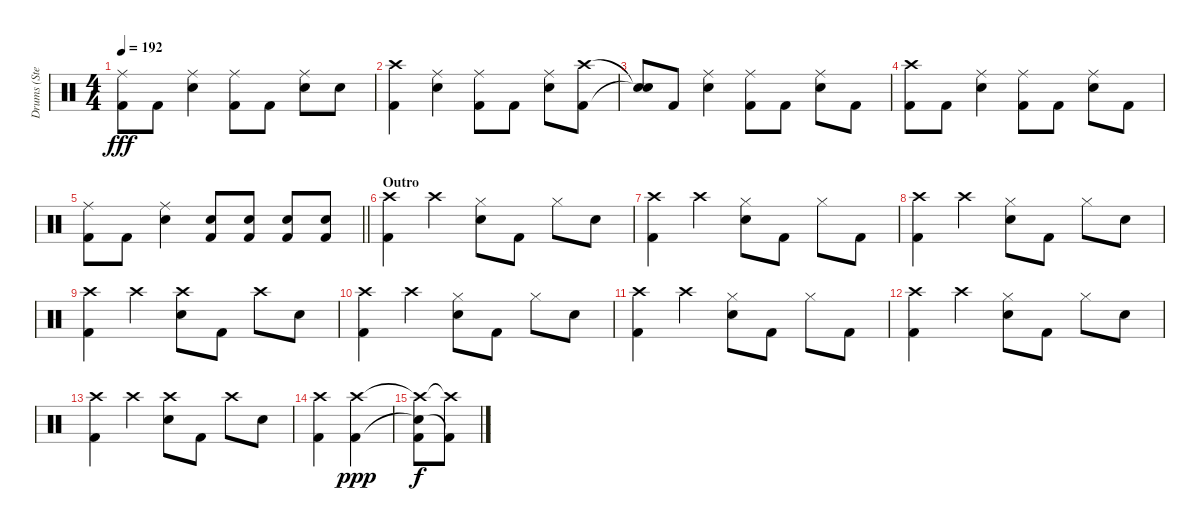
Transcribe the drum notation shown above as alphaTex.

\track ("Drums (Stevo32)" "Drums (Ste") {instrument percussion}
\staff {score}
\articulation defaults
\ts (4 4)
\tempo 192
\clef neutral
\ks c
("Ride (middle)" "Kick (hit) 2").8{dy fff} "Kick (hit) 2".8 ("Ride (middle)" "Electric Snare (hit)").4 ("Ride (middle)" "Kick (hit) 2").8 "Kick (hit) 2".8 ("Ride (middle)" "Electric Snare (hit)").8 "Electric Snare (hit)".8 |
("Crash high (hit)" "Kick (hit) 2").4 ("Ride (middle)" "Electric Snare (hit)").4 ("Ride (middle)" "Kick (hit) 2").8 "Kick (hit) 2".8 ("Ride (middle)" "Electric Snare (hit)").8 ("Crash high (hit)" "Kick (hit) 2").8 |
("Snare (hit)"{t} "Snare (hit)"{t}).8 "Kick (hit) 2".8 ("Ride (middle)" "Electric Snare (hit)").4 ("Ride (middle)" "Kick (hit) 2").8 "Kick (hit) 2".8 ("Ride (middle)" "Electric Snare (hit)").8 "Kick (hit) 2".8 |
("Crash high (hit)" "Kick (hit) 2").8 "Kick (hit) 2".8 ("Ride (middle)" "Electric Snare (hit)").4 ("Ride (middle)" "Kick (hit) 2").8 "Kick (hit) 2".8 ("Ride (middle)" "Electric Snare (hit)").8 "Kick (hit) 2".8 |
\barLineRight lightlight
("Ride (middle)" "Kick (hit) 2").8 "Kick (hit) 2".8 ("Ride (middle)" "Electric Snare (hit)").4 ("Electric Snare (hit)" "Kick (hit) 2").8 ("Electric Snare (hit)" "Kick (hit) 2").8 ("Electric Snare (hit)" "Kick (hit) 2").8 ("Electric Snare (hit)" "Kick (hit) 2").8 |
\section ("" "Outro")
("Crash high (hit)" "Kick (hit) 2").4 "Crash high (hit)".4 ("Hi-Hat (closed)" "Electric Snare (hit)").8 "Kick (hit) 2".8 "Hi-Hat (closed)".8 "Electric Snare (hit)".8 |
("Crash high (hit)" "Kick (hit) 2").4 "Crash high (hit)".4 ("Hi-Hat (closed)" "Electric Snare (hit)").8 "Kick (hit) 2".8 "Hi-Hat (closed)".8 "Kick (hit) 2".8 |
("Crash high (hit)" "Kick (hit) 2").4 "Crash high (hit)".4 ("Hi-Hat (closed)" "Electric Snare (hit)").8 "Kick (hit) 2".8 "Hi-Hat (closed)".8 "Electric Snare (hit)".8 |
("Crash high (hit)" "Kick (hit) 2").4 "Crash high (hit)".4 ("Crash high (hit)" "Electric Snare (hit)").8 "Kick (hit) 2".8 "Crash high (hit)".8 "Electric Snare (hit)".8 |
("Crash high (hit)" "Kick (hit) 2").4 "Crash high (hit)".4 ("Hi-Hat (closed)" "Electric Snare (hit)").8 "Kick (hit) 2".8 "Hi-Hat (closed)".8 "Electric Snare (hit)".8 |
("Crash high (hit)" "Kick (hit) 2").4 "Crash high (hit)".4 ("Hi-Hat (closed)" "Electric Snare (hit)").8 "Kick (hit) 2".8 "Hi-Hat (closed)".8 "Kick (hit) 2".8 |
("Crash high (hit)" "Kick (hit) 2").4 "Crash high (hit)".4 ("Hi-Hat (closed)" "Electric Snare (hit)").8 "Kick (hit) 2".8 "Hi-Hat (closed)".8 "Electric Snare (hit)".8 |
("Crash high (hit)" "Kick (hit) 2").4 "Crash high (hit)".4 ("Crash high (hit)" "Electric Snare (hit)").8 "Kick (hit) 2".8 "Crash high (hit)".8 "Electric Snare (hit)".8 |
("Crash high (hit)" "Kick (hit) 2").4 ("Crash high (hit)" "Kick (hit) 2").4{dy ppp} |
("Crash high (hit)"{t} "Snare (hit)"{t} "Kick (hit) 2").8{dy f} ("Crash high (hit)"{t} "Kick (hit) 2"{t}).8
